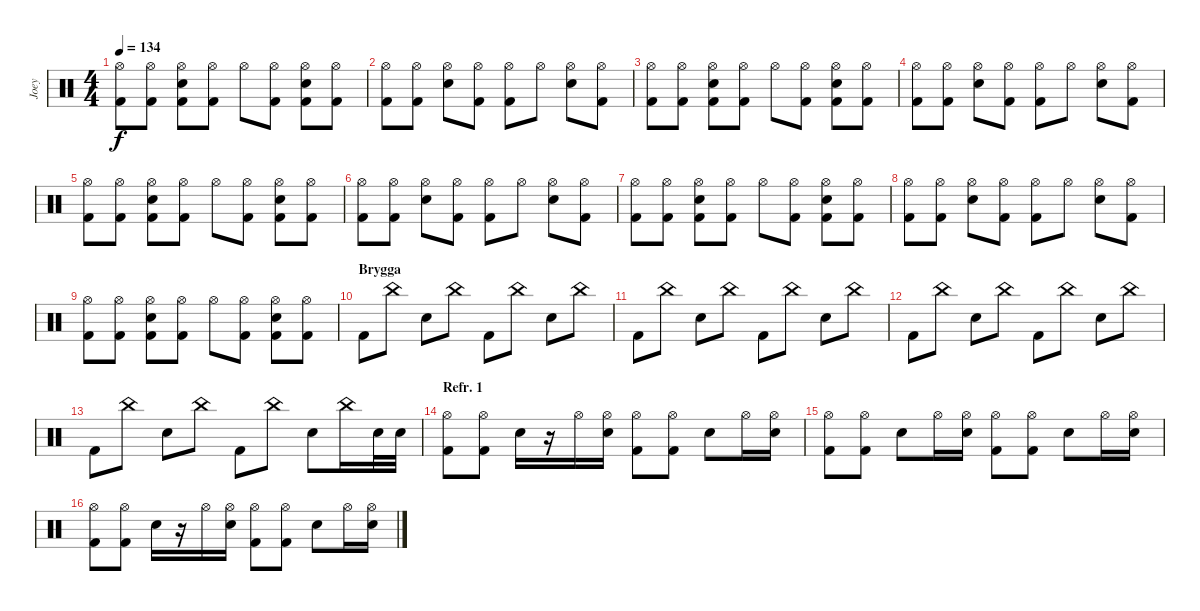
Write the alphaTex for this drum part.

\track ("Joey" "Joey") {instrument percussion}
\staff {score}
\articulation defaults
\ts (4 4)
\tempo 134
\clef neutral
\ks c
("Hi-Hat (open)" "Kick (hit) 2").8{dy f} ("Hi-Hat (open)" "Kick (hit) 2").8 ("Hi-Hat (open)" "Electric Snare (hit)" "Kick (hit) 2").8 ("Hi-Hat (open)" "Kick (hit) 2").8 "Hi-Hat (open)".8 ("Hi-Hat (open)" "Kick (hit) 2").8 ("Hi-Hat (open)" "Electric Snare (hit)" "Kick (hit) 2").8 ("Hi-Hat (open)" "Kick (hit) 2").8 |
("Hi-Hat (open)" "Kick (hit) 2").8 ("Hi-Hat (open)" "Kick (hit) 2").8 ("Hi-Hat (open)" "Electric Snare (hit)").8 ("Hi-Hat (open)" "Kick (hit) 2").8 ("Hi-Hat (open)" "Kick (hit) 2").8 "Hi-Hat (open)".8 ("Hi-Hat (open)" "Electric Snare (hit)").8 ("Hi-Hat (open)" "Kick (hit) 2").8 |
("Hi-Hat (open)" "Kick (hit) 2").8 ("Hi-Hat (open)" "Kick (hit) 2").8 ("Hi-Hat (open)" "Electric Snare (hit)" "Kick (hit) 2").8 ("Hi-Hat (open)" "Kick (hit) 2").8 "Hi-Hat (open)".8 ("Hi-Hat (open)" "Kick (hit) 2").8 ("Hi-Hat (open)" "Electric Snare (hit)" "Kick (hit) 2").8 ("Hi-Hat (open)" "Kick (hit) 2").8 |
("Hi-Hat (open)" "Kick (hit) 2").8 ("Hi-Hat (open)" "Kick (hit) 2").8 ("Hi-Hat (open)" "Electric Snare (hit)").8 ("Hi-Hat (open)" "Kick (hit) 2").8 ("Hi-Hat (open)" "Kick (hit) 2").8 "Hi-Hat (open)".8 ("Hi-Hat (open)" "Electric Snare (hit)").8 ("Hi-Hat (open)" "Kick (hit) 2").8 |
("Hi-Hat (open)" "Kick (hit) 2").8 ("Hi-Hat (open)" "Kick (hit) 2").8 ("Hi-Hat (open)" "Electric Snare (hit)" "Kick (hit) 2").8 ("Hi-Hat (open)" "Kick (hit) 2").8 "Hi-Hat (open)".8 ("Hi-Hat (open)" "Kick (hit) 2").8 ("Hi-Hat (open)" "Electric Snare (hit)" "Kick (hit) 2").8 ("Hi-Hat (open)" "Kick (hit) 2").8 |
("Hi-Hat (open)" "Kick (hit) 2").8 ("Hi-Hat (open)" "Kick (hit) 2").8 ("Hi-Hat (open)" "Electric Snare (hit)").8 ("Hi-Hat (open)" "Kick (hit) 2").8 ("Hi-Hat (open)" "Kick (hit) 2").8 "Hi-Hat (open)".8 ("Hi-Hat (open)" "Electric Snare (hit)").8 ("Hi-Hat (open)" "Kick (hit) 2").8 |
("Hi-Hat (open)" "Kick (hit) 2").8 ("Hi-Hat (open)" "Kick (hit) 2").8 ("Hi-Hat (open)" "Electric Snare (hit)" "Kick (hit) 2").8 ("Hi-Hat (open)" "Kick (hit) 2").8 "Hi-Hat (open)".8 ("Hi-Hat (open)" "Kick (hit) 2").8 ("Hi-Hat (open)" "Electric Snare (hit)" "Kick (hit) 2").8 ("Hi-Hat (open)" "Kick (hit) 2").8 |
("Hi-Hat (open)" "Kick (hit) 2").8 ("Hi-Hat (open)" "Kick (hit) 2").8 ("Hi-Hat (open)" "Electric Snare (hit)").8 ("Hi-Hat (open)" "Kick (hit) 2").8 ("Hi-Hat (open)" "Kick (hit) 2").8 "Hi-Hat (open)".8 ("Hi-Hat (open)" "Electric Snare (hit)").8 ("Hi-Hat (open)" "Kick (hit) 2").8 |
("Hi-Hat (open)" "Kick (hit) 2").8 ("Hi-Hat (open)" "Kick (hit) 2").8 ("Hi-Hat (open)" "Electric Snare (hit)" "Kick (hit) 2").8 ("Hi-Hat (open)" "Kick (hit) 2").8 "Hi-Hat (open)".8 ("Hi-Hat (open)" "Kick (hit) 2").8 ("Hi-Hat (open)" "Electric Snare (hit)" "Kick (hit) 2").8 ("Hi-Hat (open)" "Kick (hit) 2").8 |
\section ("" "Brygga")
"Kick (hit) 2".8 "China (hit)".8 "Electric Snare (hit)".8 "China (hit)".8 "Kick (hit) 2".8 "China (hit)".8 "Electric Snare (hit)".8 "China (hit)".8 |
"Kick (hit) 2".8 "China (hit)".8 "Electric Snare (hit)".8 "China (hit)".8 "Kick (hit) 2".8 "China (hit)".8 "Electric Snare (hit)".8 "China (hit)".8 |
"Kick (hit) 2".8 "China (hit)".8 "Electric Snare (hit)".8 "China (hit)".8 "Kick (hit) 2".8 "China (hit)".8 "Electric Snare (hit)".8 "China (hit)".8 |
"Kick (hit) 2".8 "China (hit)".8 "Electric Snare (hit)".8 "China (hit)".8 "Kick (hit) 2".8 "China (hit)".8 "Electric Snare (hit)".8 "China (hit)".16 "Electric Snare (hit)".32 "Electric Snare (hit)".32 |
\section ("" "Refr. 1")
("Hi-Hat (open)" "Kick (hit) 2").8 ("Hi-Hat (open)" "Kick (hit) 2").8 "Electric Snare (hit)".16 r.16 "Hi-Hat (open)".16 ("Hi-Hat (open)" "Electric Snare (hit)").16 ("Hi-Hat (open)" "Kick (hit) 2").8 ("Hi-Hat (open)" "Kick (hit) 2").8 "Electric Snare (hit)".8 "Hi-Hat (open)".16 ("Hi-Hat (open)" "Electric Snare (hit)").16 |
("Hi-Hat (open)" "Kick (hit) 2").8 ("Hi-Hat (open)" "Kick (hit) 2").8 "Electric Snare (hit)".8 "Hi-Hat (open)".16 ("Hi-Hat (open)" "Electric Snare (hit)").16 ("Hi-Hat (open)" "Kick (hit) 2").8 ("Hi-Hat (open)" "Kick (hit) 2").8 "Electric Snare (hit)".8 "Hi-Hat (open)".16 ("Hi-Hat (open)" "Electric Snare (hit)").16 |
("Hi-Hat (open)" "Kick (hit) 2").8 ("Hi-Hat (open)" "Kick (hit) 2").8 "Electric Snare (hit)".16 r.16 "Hi-Hat (open)".16 ("Hi-Hat (open)" "Electric Snare (hit)").16 ("Hi-Hat (open)" "Kick (hit) 2").8 ("Hi-Hat (open)" "Kick (hit) 2").8 "Electric Snare (hit)".8 "Hi-Hat (open)".16 ("Hi-Hat (open)" "Electric Snare (hit)").16
